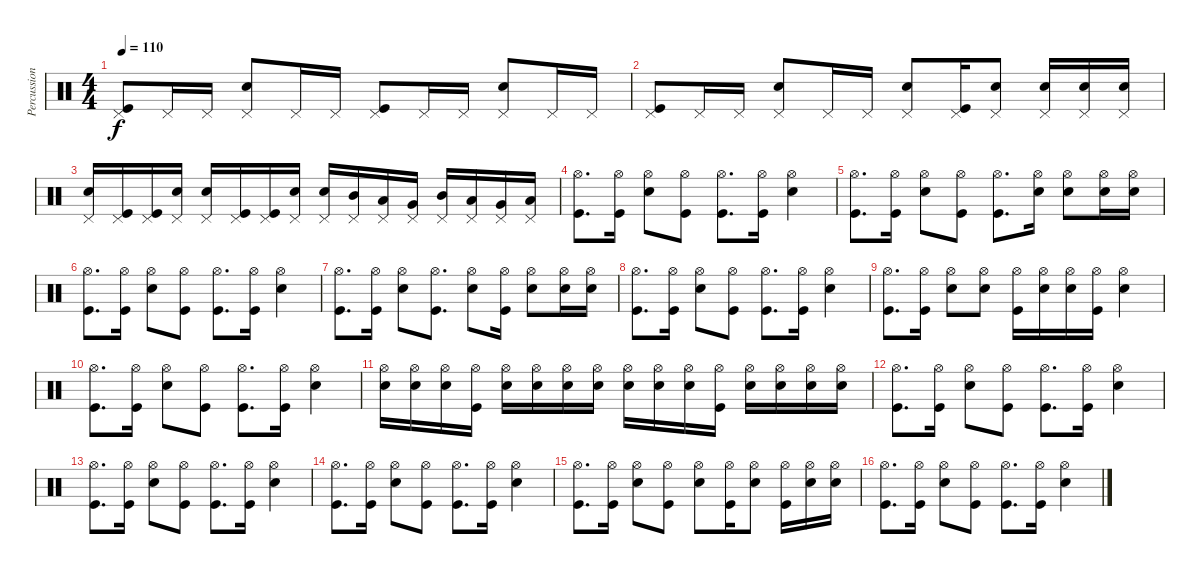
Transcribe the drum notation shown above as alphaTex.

\track ("Percussions" "Percussion") {instrument percussion}
\staff {score}
\articulation defaults
\ts (4 4)
\tempo 110
\clef neutral
\ks c
("Pedal Hi-Hat (hit)" "Kick (hit)").8{dy f} "Pedal Hi-Hat (hit)".16 "Pedal Hi-Hat (hit)".16 ("Pedal Hi-Hat (hit)" "Snare (hit) 2").8 "Pedal Hi-Hat (hit)".16 "Pedal Hi-Hat (hit)".16 ("Pedal Hi-Hat (hit)" "Kick (hit)").8 "Pedal Hi-Hat (hit)".16 "Pedal Hi-Hat (hit)".16 ("Pedal Hi-Hat (hit)" "Snare (hit) 2").8 "Pedal Hi-Hat (hit)".16 "Pedal Hi-Hat (hit)".16 |
("Pedal Hi-Hat (hit)" "Kick (hit)").8 "Pedal Hi-Hat (hit)".16 "Pedal Hi-Hat (hit)".16 ("Pedal Hi-Hat (hit)" "Snare (hit) 2").8 "Pedal Hi-Hat (hit)".16 "Pedal Hi-Hat (hit)".16 ("Pedal Hi-Hat (hit)" "Snare (hit) 2").8 ("Pedal Hi-Hat (hit)" "Kick (hit)").16 ("Pedal Hi-Hat (hit)" "Snare (hit) 2").8 ("Snare (hit) 2" "Pedal Hi-Hat (hit)").16 ("Snare (hit) 2" "Pedal Hi-Hat (hit)").16 ("Snare (hit) 2" "Pedal Hi-Hat (hit)").16 |
("Snare (hit) 2" "Pedal Hi-Hat (hit)").16 ("Kick (hit)" "Pedal Hi-Hat (hit)").16 ("Kick (hit)" "Pedal Hi-Hat (hit)").16 ("Snare (hit) 2" "Pedal Hi-Hat (hit)").16 ("Snare (hit) 2" "Pedal Hi-Hat (hit)").16 ("Kick (hit)" "Pedal Hi-Hat (hit)").16 ("Kick (hit)" "Pedal Hi-Hat (hit)").16 ("Snare (hit) 2" "Pedal Hi-Hat (hit)").16 ("Snare (hit) 2" "Pedal Hi-Hat (hit)").16 ("Mid Tom (hit)" "Pedal Hi-Hat (hit)").16 ("Low Tom (hit)" "Pedal Hi-Hat (hit)").16 ("Very Low Tom (hit)" "Pedal Hi-Hat (hit)").16 ("Mid Tom (hit)" "Pedal Hi-Hat (hit)").16 ("Low Tom (hit)" "Pedal Hi-Hat (hit)").16 ("Very Low Tom (hit)" "Pedal Hi-Hat (hit)").16 ("Low Floor Tom (hit)" "Pedal Hi-Hat (hit)").16 |
("Hi-Hat (open)" "Kick (hit)").8{d} ("Hi-Hat (open)" "Kick (hit)").16 ("Hi-Hat (open)" "Snare (hit) 2").8 ("Hi-Hat (open)" "Kick (hit)").8 ("Hi-Hat (open)" "Kick (hit)").8{d} ("Hi-Hat (open)" "Kick (hit)").16 ("Hi-Hat (open)" "Snare (hit) 2").4 |
("Hi-Hat (open)" "Kick (hit)").8{d} ("Hi-Hat (open)" "Kick (hit)").16 ("Hi-Hat (open)" "Snare (hit) 2").8 ("Hi-Hat (open)" "Kick (hit)").8 ("Hi-Hat (open)" "Kick (hit)").8{d} ("Hi-Hat (open)" "Snare (hit) 2").16 ("Hi-Hat (open)" "Snare (hit) 2").8 ("Hi-Hat (open)" "Snare (hit) 2").16 ("Hi-Hat (open)" "Snare (hit) 2").16 |
("Hi-Hat (open)" "Kick (hit)").8{d} ("Hi-Hat (open)" "Kick (hit)").16 ("Hi-Hat (open)" "Snare (hit) 2").8 ("Hi-Hat (open)" "Kick (hit)").8 ("Hi-Hat (open)" "Kick (hit)").8{d} ("Hi-Hat (open)" "Kick (hit)").16 ("Hi-Hat (open)" "Snare (hit) 2").4 |
("Hi-Hat (open)" "Kick (hit)").8{d} ("Hi-Hat (open)" "Kick (hit)").16 ("Hi-Hat (open)" "Snare (hit) 2").8 ("Hi-Hat (open)" "Kick (hit)").8{d} ("Hi-Hat (open)" "Snare (hit) 2").8 ("Hi-Hat (open)" "Kick (hit)").16 ("Hi-Hat (open)" "Snare (hit) 2").8 ("Hi-Hat (open)" "Snare (hit) 2").16 ("Hi-Hat (open)" "Snare (hit) 2").16 |
("Hi-Hat (open)" "Kick (hit)").8{d} ("Hi-Hat (open)" "Kick (hit)").16 ("Hi-Hat (open)" "Snare (hit) 2").8 ("Hi-Hat (open)" "Kick (hit)").8 ("Hi-Hat (open)" "Kick (hit)").8{d} ("Hi-Hat (open)" "Kick (hit)").16 ("Hi-Hat (open)" "Snare (hit) 2").4 |
("Hi-Hat (open)" "Kick (hit)").8{d} ("Hi-Hat (open)" "Kick (hit)").16 ("Hi-Hat (open)" "Snare (hit) 2").8 ("Hi-Hat (open)" "Snare (hit) 2").8 ("Hi-Hat (open)" "Kick (hit)").16 ("Hi-Hat (open)" "Snare (hit) 2").16 ("Hi-Hat (open)" "Snare (hit) 2").16 ("Hi-Hat (open)" "Kick (hit)").16 ("Hi-Hat (open)" "Snare (hit) 2").4 |
("Hi-Hat (open)" "Kick (hit)").8{d} ("Hi-Hat (open)" "Kick (hit)").16 ("Hi-Hat (open)" "Snare (hit) 2").8 ("Hi-Hat (open)" "Kick (hit)").8 ("Hi-Hat (open)" "Kick (hit)").8{d} ("Hi-Hat (open)" "Kick (hit)").16 ("Hi-Hat (open)" "Snare (hit) 2").4 |
("Snare (hit) 2" "Hi-Hat (open)").16 ("Snare (hit) 2" "Hi-Hat (open)").16 ("Snare (hit) 2" "Hi-Hat (open)").16 ("Kick (hit)" "Hi-Hat (open)").16 ("Snare (hit) 2" "Hi-Hat (open)").16 ("Snare (hit) 2" "Hi-Hat (open)").16 ("Snare (hit) 2" "Hi-Hat (open)").16 ("Snare (hit) 2" "Hi-Hat (open)").16 ("Snare (hit) 2" "Hi-Hat (open)").16 ("Snare (hit) 2" "Hi-Hat (open)").16 ("Snare (hit) 2" "Hi-Hat (open)").16 ("Kick (hit)" "Hi-Hat (open)").16 ("Snare (hit) 2" "Hi-Hat (open)").16 ("Snare (hit) 2" "Hi-Hat (open)").16 ("Snare (hit) 2" "Hi-Hat (open)").16 ("Snare (hit) 2" "Hi-Hat (open)").16 |
("Hi-Hat (open)" "Kick (hit)").8{d} ("Hi-Hat (open)" "Kick (hit)").16 ("Hi-Hat (open)" "Snare (hit) 2").8 ("Hi-Hat (open)" "Kick (hit)").8 ("Hi-Hat (open)" "Kick (hit)").8{d} ("Hi-Hat (open)" "Kick (hit)").16 ("Hi-Hat (open)" "Snare (hit) 2").4 |
("Hi-Hat (open)" "Kick (hit)").8{d} ("Hi-Hat (open)" "Kick (hit)").16 ("Hi-Hat (open)" "Snare (hit) 2").8 ("Hi-Hat (open)" "Kick (hit)").8 ("Hi-Hat (open)" "Kick (hit)").8{d} ("Hi-Hat (open)" "Kick (hit)").16 ("Hi-Hat (open)" "Snare (hit) 2").4 |
("Hi-Hat (open)" "Kick (hit)").8{d} ("Hi-Hat (open)" "Kick (hit)").16 ("Hi-Hat (open)" "Snare (hit) 2").8 ("Hi-Hat (open)" "Kick (hit)").8 ("Hi-Hat (open)" "Kick (hit)").8{d} ("Hi-Hat (open)" "Kick (hit)").16 ("Hi-Hat (open)" "Snare (hit) 2").4 |
("Hi-Hat (open)" "Kick (hit)").8{d} ("Hi-Hat (open)" "Kick (hit)").16 ("Hi-Hat (open)" "Snare (hit) 2").8 ("Hi-Hat (open)" "Kick (hit)").8 ("Hi-Hat (open)" "Snare (hit) 2").8 ("Hi-Hat (open)" "Kick (hit)").16 ("Hi-Hat (open)" "Snare (hit) 2").8 ("Hi-Hat (open)" "Kick (hit)").16 ("Hi-Hat (open)" "Snare (hit) 2").16 ("Hi-Hat (open)" "Snare (hit) 2").16 |
("Hi-Hat (open)" "Kick (hit)").8{d} ("Hi-Hat (open)" "Kick (hit)").16 ("Hi-Hat (open)" "Snare (hit) 2").8 ("Hi-Hat (open)" "Kick (hit)").8 ("Hi-Hat (open)" "Kick (hit)").8{d} ("Hi-Hat (open)" "Kick (hit)").16 ("Hi-Hat (open)" "Snare (hit) 2").4
